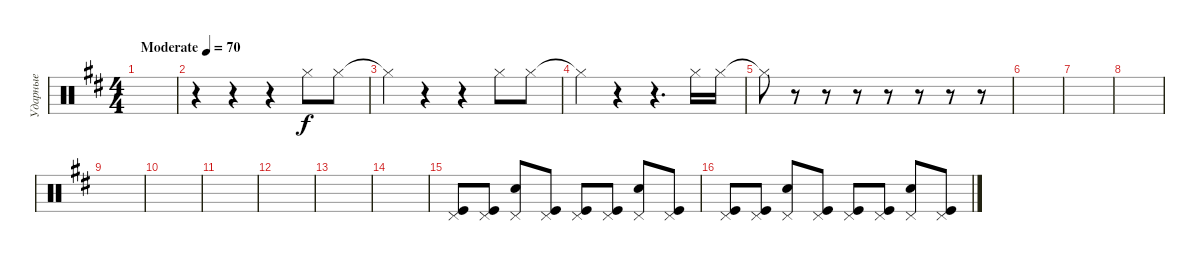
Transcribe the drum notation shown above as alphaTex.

\track ("Ударные" "Ударные") {instrument percussion}
\staff {score}
\articulation defaults
\ts (4 4)
\tempo (70 "Moderate")
\clef neutral
\ks d
|
r.4 r.4 r.4 "Hi-Hat (closed)".8 "Hi-Hat (closed)".8 |
"Hi-Hat (closed)"{t}.4 r.4 r.4 "Hi-Hat (closed)".8 "Hi-Hat (closed)".8 |
"Hi-Hat (closed)"{t}.4 r.4 r.4{d} "Hi-Hat (closed)".16 "Hi-Hat (closed)".16 |
"Hi-Hat (closed)"{t}.8 r.8 r.8 r.8 r.8 r.8 r.8 r.8 |
|
|
|
|
|
|
|
|
|
("Kick (hit)" "Pedal Hi-Hat (hit)").8 ("Kick (hit)" "Pedal Hi-Hat (hit)").8 ("Snare (hit) 2" "Pedal Hi-Hat (hit)").8 ("Kick (hit)" "Pedal Hi-Hat (hit)").8 ("Kick (hit)" "Pedal Hi-Hat (hit)").8 ("Kick (hit)" "Pedal Hi-Hat (hit)").8 ("Snare (hit) 2" "Pedal Hi-Hat (hit)").8 ("Kick (hit)" "Pedal Hi-Hat (hit)").8 |
("Kick (hit)" "Pedal Hi-Hat (hit)").8 ("Kick (hit)" "Pedal Hi-Hat (hit)").8 ("Snare (hit) 2" "Pedal Hi-Hat (hit)").8 ("Kick (hit)" "Pedal Hi-Hat (hit)").8 ("Kick (hit)" "Pedal Hi-Hat (hit)").8 ("Kick (hit)" "Pedal Hi-Hat (hit)").8 ("Snare (hit) 2" "Pedal Hi-Hat (hit)").8 ("Kick (hit)" "Pedal Hi-Hat (hit)").8
